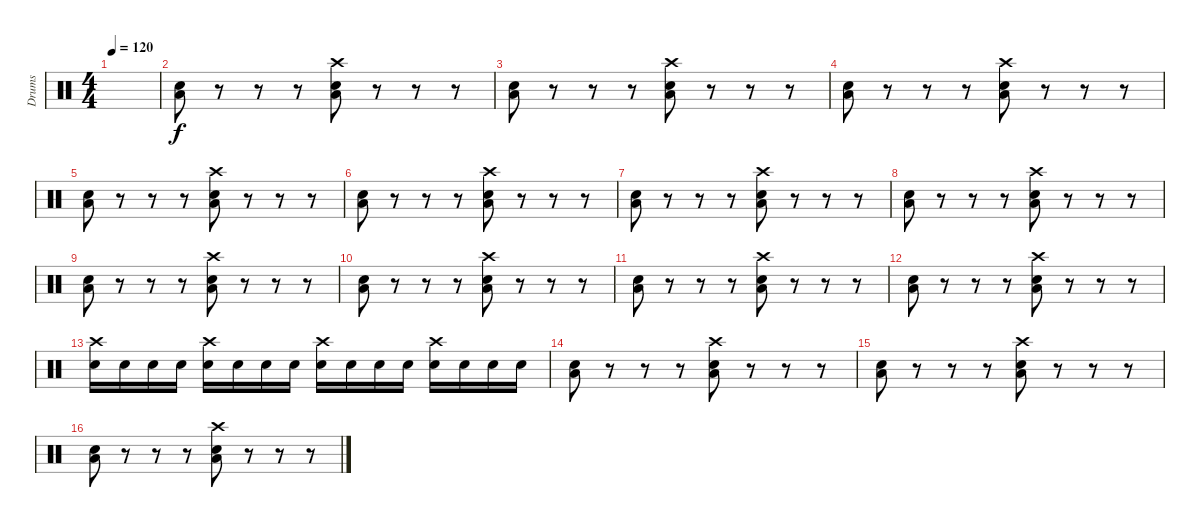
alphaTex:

\track ("Drums" "Drums") {instrument percussion}
\staff {score}
\articulation defaults
\ts (4 4)
\tempo 120
\clef neutral
\ks c
|
("Electric Snare (hit)" "Low Floor Tom (hit)").8 r.8 r.8 r.8 ("Crash high (hit)" "Electric Snare (hit)" "Low Floor Tom (hit)").8 r.8 r.8 r.8 |
("Electric Snare (hit)" "Low Floor Tom (hit)").8 r.8 r.8 r.8 ("Crash high (hit)" "Electric Snare (hit)" "Low Floor Tom (hit)").8 r.8 r.8 r.8 |
("Electric Snare (hit)" "Low Floor Tom (hit)").8 r.8 r.8 r.8 ("Crash high (hit)" "Electric Snare (hit)" "Low Floor Tom (hit)").8 r.8 r.8 r.8 |
("Electric Snare (hit)" "Low Floor Tom (hit)").8 r.8 r.8 r.8 ("Crash high (hit)" "Electric Snare (hit)" "Low Floor Tom (hit)").8 r.8 r.8 r.8 |
("Electric Snare (hit)" "Low Floor Tom (hit)").8 r.8 r.8 r.8 ("Crash high (hit)" "Electric Snare (hit)" "Low Floor Tom (hit)").8 r.8 r.8 r.8 |
("Electric Snare (hit)" "Low Floor Tom (hit)").8 r.8 r.8 r.8 ("Crash high (hit)" "Electric Snare (hit)" "Low Floor Tom (hit)").8 r.8 r.8 r.8 |
("Electric Snare (hit)" "Low Floor Tom (hit)").8 r.8 r.8 r.8 ("Crash high (hit)" "Electric Snare (hit)" "Low Floor Tom (hit)").8 r.8 r.8 r.8 |
("Electric Snare (hit)" "Low Floor Tom (hit)").8 r.8 r.8 r.8 ("Crash high (hit)" "Electric Snare (hit)" "Low Floor Tom (hit)").8 r.8 r.8 r.8 |
("Electric Snare (hit)" "Low Floor Tom (hit)").8 r.8 r.8 r.8 ("Crash high (hit)" "Electric Snare (hit)" "Low Floor Tom (hit)").8 r.8 r.8 r.8 |
("Electric Snare (hit)" "Low Floor Tom (hit)").8 r.8 r.8 r.8 ("Crash high (hit)" "Electric Snare (hit)" "Low Floor Tom (hit)").8 r.8 r.8 r.8 |
("Electric Snare (hit)" "Low Floor Tom (hit)").8 r.8 r.8 r.8 ("Crash high (hit)" "Electric Snare (hit)" "Low Floor Tom (hit)").8 r.8 r.8 r.8 |
("Crash high (hit)" "Electric Snare (hit)").16 "Electric Snare (hit)".16 "Electric Snare (hit)".16 "Electric Snare (hit)".16 ("Crash high (hit)" "Electric Snare (hit)").16 "Electric Snare (hit)".16 "Electric Snare (hit)".16 "Electric Snare (hit)".16 ("Crash high (hit)" "Electric Snare (hit)").16 "Electric Snare (hit)".16 "Electric Snare (hit)".16 "Electric Snare (hit)".16 ("Crash high (hit)" "Electric Snare (hit)").16 "Electric Snare (hit)".16 "Electric Snare (hit)".16 "Electric Snare (hit)".16 |
("Electric Snare (hit)" "Low Floor Tom (hit)").8 r.8 r.8 r.8 ("Crash high (hit)" "Electric Snare (hit)" "Low Floor Tom (hit)").8 r.8 r.8 r.8 |
("Electric Snare (hit)" "Low Floor Tom (hit)").8 r.8 r.8 r.8 ("Crash high (hit)" "Electric Snare (hit)" "Low Floor Tom (hit)").8 r.8 r.8 r.8 |
("Electric Snare (hit)" "Low Floor Tom (hit)").8 r.8 r.8 r.8 ("Crash high (hit)" "Electric Snare (hit)" "Low Floor Tom (hit)").8 r.8 r.8 r.8
